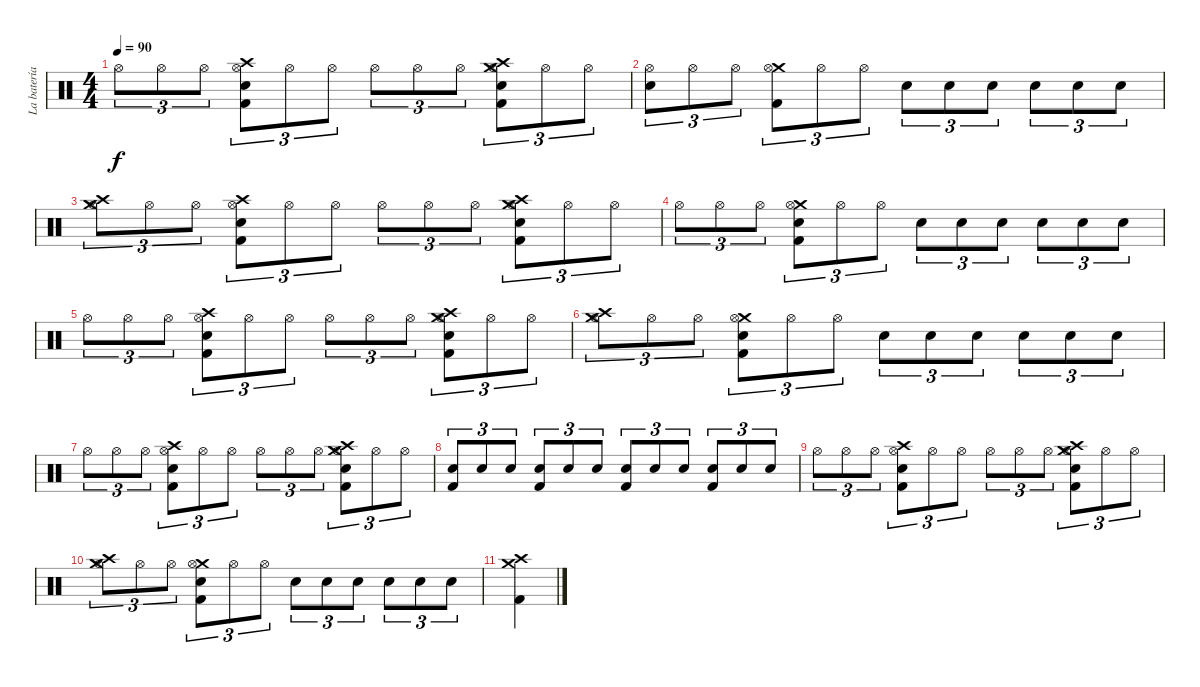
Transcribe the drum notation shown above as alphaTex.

\track ("La batería (con dos huevos xD)" "La batería") {instrument percussion}
\staff {score}
\articulation defaults
\ts (4 4)
\tempo 90
\clef neutral
\ks c "Hi-Hat (open)".8{tu (3 2) dy f} "Hi-Hat (open)".8{tu (3 2)} "Hi-Hat (open)".8{tu (3 2)}
("Crash high (hit)" "Hi-Hat (open)" "Electric Snare (hit)" "Kick (hit) 2").8{tu (3 2)} "Hi-Hat (open)".8{tu (3 2)} "Hi-Hat (open)".8{tu (3 2)} "Hi-Hat (open)".8{tu (3 2)} "Hi-Hat (open)".8{tu (3 2)} "Hi-Hat (open)".8{tu (3 2)} ("Crash medium (hit)" "Hi-Hat (open)" "Crash high (hit)" "Electric Snare (hit)" "Kick (hit) 2").8{tu (3 2)} "Hi-Hat (open)".8{tu (3 2)} "Hi-Hat (open)".8{tu (3 2)} |
("Hi-Hat (open)" "Electric Snare (hit)").8{tu (3 2)} "Hi-Hat (open)".8{tu (3 2)} "Hi-Hat (open)".8{tu (3 2)} ("Crash medium (hit)" "Hi-Hat (open)" "Kick (hit) 2").8{tu (3 2)} "Hi-Hat (open)".8{tu (3 2)} "Hi-Hat (open)".8{tu (3 2)} "Electric Snare (hit)".8{tu (3 2)} "Electric Snare (hit)".8{tu (3 2)} "Electric Snare (hit)".8{tu (3 2)} "Electric Snare (hit)".8{tu (3 2)} "Electric Snare (hit)".8{tu (3 2)} "Electric Snare (hit)".8{tu (3 2)} |
("Crash medium (hit)" "Hi-Hat (open)" "Crash high (hit)").8{tu (3 2)} "Hi-Hat (open)".8{tu (3 2)} "Hi-Hat (open)".8{tu (3 2)} ("Crash high (hit)" "Hi-Hat (open)" "Electric Snare (hit)" "Kick (hit) 2").8{tu (3 2)} "Hi-Hat (open)".8{tu (3 2)} "Hi-Hat (open)".8{tu (3 2)} "Hi-Hat (open)".8{tu (3 2)} "Hi-Hat (open)".8{tu (3 2)} "Hi-Hat (open)".8{tu (3 2)} ("Crash medium (hit)" "Hi-Hat (open)" "Crash high (hit)" "Electric Snare (hit)" "Kick (hit) 2").8{tu (3 2)} "Hi-Hat (open)".8{tu (3 2)} "Hi-Hat (open)".8{tu (3 2)} |
"Hi-Hat (open)".8{tu (3 2)} "Hi-Hat (open)".8{tu (3 2)} "Hi-Hat (open)".8{tu (3 2)} ("Crash medium (hit)" "Hi-Hat (open)" "Electric Snare (hit)" "Kick (hit) 2").8{tu (3 2)} "Hi-Hat (open)".8{tu (3 2)} "Hi-Hat (open)".8{tu (3 2)} "Electric Snare (hit)".8{tu (3 2)} "Electric Snare (hit)".8{tu (3 2)} "Electric Snare (hit)".8{tu (3 2)} "Electric Snare (hit)".8{tu (3 2)} "Electric Snare (hit)".8{tu (3 2)} "Electric Snare (hit)".8{tu (3 2)} |
"Hi-Hat (open)".8{tu (3 2)} "Hi-Hat (open)".8{tu (3 2)} "Hi-Hat (open)".8{tu (3 2)} ("Crash high (hit)" "Hi-Hat (open)" "Electric Snare (hit)" "Kick (hit) 2").8{tu (3 2)} "Hi-Hat (open)".8{tu (3 2)} "Hi-Hat (open)".8{tu (3 2)} "Hi-Hat (open)".8{tu (3 2)} "Hi-Hat (open)".8{tu (3 2)} "Hi-Hat (open)".8{tu (3 2)} ("Crash medium (hit)" "Hi-Hat (open)" "Crash high (hit)" "Electric Snare (hit)" "Kick (hit) 2").8{tu (3 2)} "Hi-Hat (open)".8{tu (3 2)} "Hi-Hat (open)".8{tu (3 2)} |
("Crash medium (hit)" "Hi-Hat (open)" "Crash high (hit)").8{tu (3 2) volume 0} "Hi-Hat (open)".8{tu (3 2)} "Hi-Hat (open)".8{tu (3 2)} ("Crash medium (hit)" "Hi-Hat (open)" "Electric Snare (hit)" "Kick (hit) 2").8{tu (3 2)} "Hi-Hat (open)".8{tu (3 2)} "Hi-Hat (open)".8{tu (3 2)} "Electric Snare (hit)".8{tu (3 2)} "Electric Snare (hit)".8{tu (3 2)} "Electric Snare (hit)".8{tu (3 2)} "Electric Snare (hit)".8{tu (3 2)} "Electric Snare (hit)".8{tu (3 2)} "Electric Snare (hit)".8{tu (3 2)} |
"Hi-Hat (open)".8{tu (3 2)} "Hi-Hat (open)".8{tu (3 2)} "Hi-Hat (open)".8{tu (3 2)} ("Crash high (hit)" "Hi-Hat (open)" "Electric Snare (hit)" "Kick (hit) 2").8{tu (3 2)} "Hi-Hat (open)".8{tu (3 2)} "Hi-Hat (open)".8{tu (3 2)} "Hi-Hat (open)".8{tu (3 2)} "Hi-Hat (open)".8{tu (3 2)} "Hi-Hat (open)".8{tu (3 2)} ("Crash medium (hit)" "Hi-Hat (open)" "Crash high (hit)" "Electric Snare (hit)" "Kick (hit) 2").8{tu (3 2)} "Hi-Hat (open)".8{tu (3 2)} "Hi-Hat (open)".8{tu (3 2)} |
("Electric Snare (hit)" "Kick (hit) 2").8{tu (3 2)} "Electric Snare (hit)".8{tu (3 2)} "Electric Snare (hit)".8{tu (3 2)} ("Electric Snare (hit)" "Kick (hit) 2").8{tu (3 2)} "Electric Snare (hit)".8{tu (3 2)} "Electric Snare (hit)".8{tu (3 2)} ("Electric Snare (hit)" "Kick (hit) 2").8{tu (3 2)} "Electric Snare (hit)".8{tu (3 2)} "Electric Snare (hit)".8{tu (3 2)} ("Electric Snare (hit)" "Kick (hit) 2").8{tu (3 2)} "Electric Snare (hit)".8{tu (3 2)} "Electric Snare (hit)".8{tu (3 2)} |
"Hi-Hat (open)".8{tu (3 2)} "Hi-Hat (open)".8{tu (3 2)} "Hi-Hat (open)".8{tu (3 2)} ("Crash high (hit)" "Hi-Hat (open)" "Electric Snare (hit)" "Kick (hit) 2").8{tu (3 2)} "Hi-Hat (open)".8{tu (3 2)} "Hi-Hat (open)".8{tu (3 2)} "Hi-Hat (open)".8{tu (3 2)} "Hi-Hat (open)".8{tu (3 2)} "Hi-Hat (open)".8{tu (3 2)} ("Crash medium (hit)" "Hi-Hat (open)" "Crash high (hit)" "Electric Snare (hit)" "Kick (hit) 2").8{tu (3 2)} "Hi-Hat (open)".8{tu (3 2)} "Hi-Hat (open)".8{tu (3 2)} |
("Crash medium (hit)" "Hi-Hat (open)" "Crash high (hit)").8{tu (3 2)} "Hi-Hat (open)".8{tu (3 2)} "Hi-Hat (open)".8{tu (3 2)} ("Crash medium (hit)" "Hi-Hat (open)" "Electric Snare (hit)" "Kick (hit) 2").8{tu (3 2)} "Hi-Hat (open)".8{tu (3 2)} "Hi-Hat (open)".8{tu (3 2)} "Electric Snare (hit)".8{tu (3 2)} "Electric Snare (hit)".8{tu (3 2)} "Electric Snare (hit)".8{tu (3 2)} "Electric Snare (hit)".8{tu (3 2)} "Electric Snare (hit)".8{tu (3 2)} "Electric Snare (hit)".8{tu (3 2)} |
("Crash medium (hit)" "Crash high (hit)" "Kick (hit) 2").4
